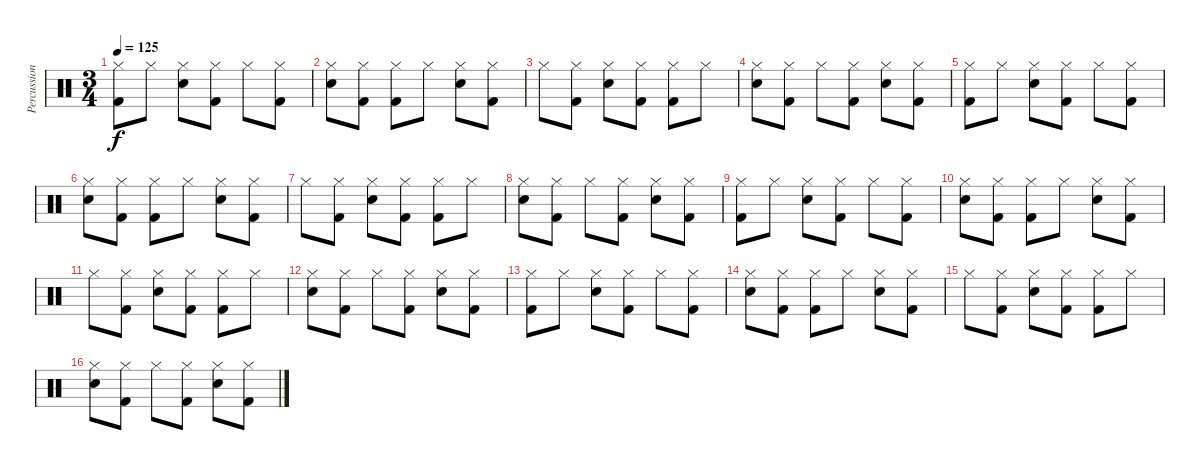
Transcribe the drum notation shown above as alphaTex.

\track ("Percussion" "Percussion") {instrument percussion}
\staff {score}
\articulation defaults
\ts (3 4)
\tempo 125
\clef neutral
\ks c
("Hi-Hat (closed)" "Kick (hit) 2").8{dy f} "Hi-Hat (closed)".8 ("Hi-Hat (closed)" "Snare (hit) 2").8 ("Hi-Hat (closed)" "Kick (hit) 2").8 "Hi-Hat (closed)".8 ("Hi-Hat (closed)" "Kick (hit) 2").8 |
("Hi-Hat (closed)" "Snare (hit) 2").8 ("Hi-Hat (closed)" "Kick (hit) 2").8 ("Hi-Hat (closed)" "Kick (hit) 2").8 "Hi-Hat (closed)".8 ("Hi-Hat (closed)" "Snare (hit) 2").8 ("Hi-Hat (closed)" "Kick (hit) 2").8 |
"Hi-Hat (closed)".8 ("Hi-Hat (closed)" "Kick (hit) 2").8 ("Hi-Hat (closed)" "Snare (hit) 2").8 ("Hi-Hat (closed)" "Kick (hit) 2").8 ("Hi-Hat (closed)" "Kick (hit) 2").8 "Hi-Hat (closed)".8 |
("Hi-Hat (closed)" "Snare (hit) 2").8 ("Hi-Hat (closed)" "Kick (hit) 2").8 "Hi-Hat (closed)".8 ("Hi-Hat (closed)" "Kick (hit) 2").8 ("Hi-Hat (closed)" "Snare (hit) 2").8 ("Hi-Hat (closed)" "Kick (hit) 2").8 |
("Hi-Hat (closed)" "Kick (hit) 2").8 "Hi-Hat (closed)".8 ("Hi-Hat (closed)" "Snare (hit) 2").8 ("Hi-Hat (closed)" "Kick (hit) 2").8 "Hi-Hat (closed)".8 ("Hi-Hat (closed)" "Kick (hit) 2").8 |
("Hi-Hat (closed)" "Snare (hit) 2").8 ("Hi-Hat (closed)" "Kick (hit) 2").8 ("Hi-Hat (closed)" "Kick (hit) 2").8 "Hi-Hat (closed)".8 ("Hi-Hat (closed)" "Snare (hit) 2").8 ("Hi-Hat (closed)" "Kick (hit) 2").8 |
"Hi-Hat (closed)".8 ("Hi-Hat (closed)" "Kick (hit) 2").8 ("Hi-Hat (closed)" "Snare (hit) 2").8 ("Hi-Hat (closed)" "Kick (hit) 2").8 ("Hi-Hat (closed)" "Kick (hit) 2").8 "Hi-Hat (closed)".8 |
("Hi-Hat (closed)" "Snare (hit) 2").8 ("Hi-Hat (closed)" "Kick (hit) 2").8 "Hi-Hat (closed)".8 ("Hi-Hat (closed)" "Kick (hit) 2").8 ("Hi-Hat (closed)" "Snare (hit) 2").8 ("Hi-Hat (closed)" "Kick (hit) 2").8 |
("Hi-Hat (closed)" "Kick (hit) 2").8 "Hi-Hat (closed)".8 ("Hi-Hat (closed)" "Snare (hit) 2").8 ("Hi-Hat (closed)" "Kick (hit) 2").8 "Hi-Hat (closed)".8 ("Hi-Hat (closed)" "Kick (hit) 2").8 |
("Hi-Hat (closed)" "Snare (hit) 2").8 ("Hi-Hat (closed)" "Kick (hit) 2").8 ("Hi-Hat (closed)" "Kick (hit) 2").8 "Hi-Hat (closed)".8 ("Hi-Hat (closed)" "Snare (hit) 2").8 ("Hi-Hat (closed)" "Kick (hit) 2").8 |
"Hi-Hat (closed)".8 ("Hi-Hat (closed)" "Kick (hit) 2").8 ("Hi-Hat (closed)" "Snare (hit) 2").8 ("Hi-Hat (closed)" "Kick (hit) 2").8 ("Hi-Hat (closed)" "Kick (hit) 2").8 "Hi-Hat (closed)".8 |
("Hi-Hat (closed)" "Snare (hit) 2").8 ("Hi-Hat (closed)" "Kick (hit) 2").8 "Hi-Hat (closed)".8 ("Hi-Hat (closed)" "Kick (hit) 2").8 ("Hi-Hat (closed)" "Snare (hit) 2").8 ("Hi-Hat (closed)" "Kick (hit) 2").8 |
("Hi-Hat (closed)" "Kick (hit) 2").8 "Hi-Hat (closed)".8 ("Hi-Hat (closed)" "Snare (hit) 2").8 ("Hi-Hat (closed)" "Kick (hit) 2").8 "Hi-Hat (closed)".8 ("Hi-Hat (closed)" "Kick (hit) 2").8 |
("Hi-Hat (closed)" "Snare (hit) 2").8 ("Hi-Hat (closed)" "Kick (hit) 2").8 ("Hi-Hat (closed)" "Kick (hit) 2").8 "Hi-Hat (closed)".8 ("Hi-Hat (closed)" "Snare (hit) 2").8 ("Hi-Hat (closed)" "Kick (hit) 2").8 |
"Hi-Hat (closed)".8 ("Hi-Hat (closed)" "Kick (hit) 2").8 ("Hi-Hat (closed)" "Snare (hit) 2").8 ("Hi-Hat (closed)" "Kick (hit) 2").8 ("Hi-Hat (closed)" "Kick (hit) 2").8 "Hi-Hat (closed)".8 |
("Hi-Hat (closed)" "Snare (hit) 2").8 ("Hi-Hat (closed)" "Kick (hit) 2").8 "Hi-Hat (closed)".8 ("Hi-Hat (closed)" "Kick (hit) 2").8 ("Hi-Hat (closed)" "Snare (hit) 2").8 ("Hi-Hat (closed)" "Kick (hit) 2").8
